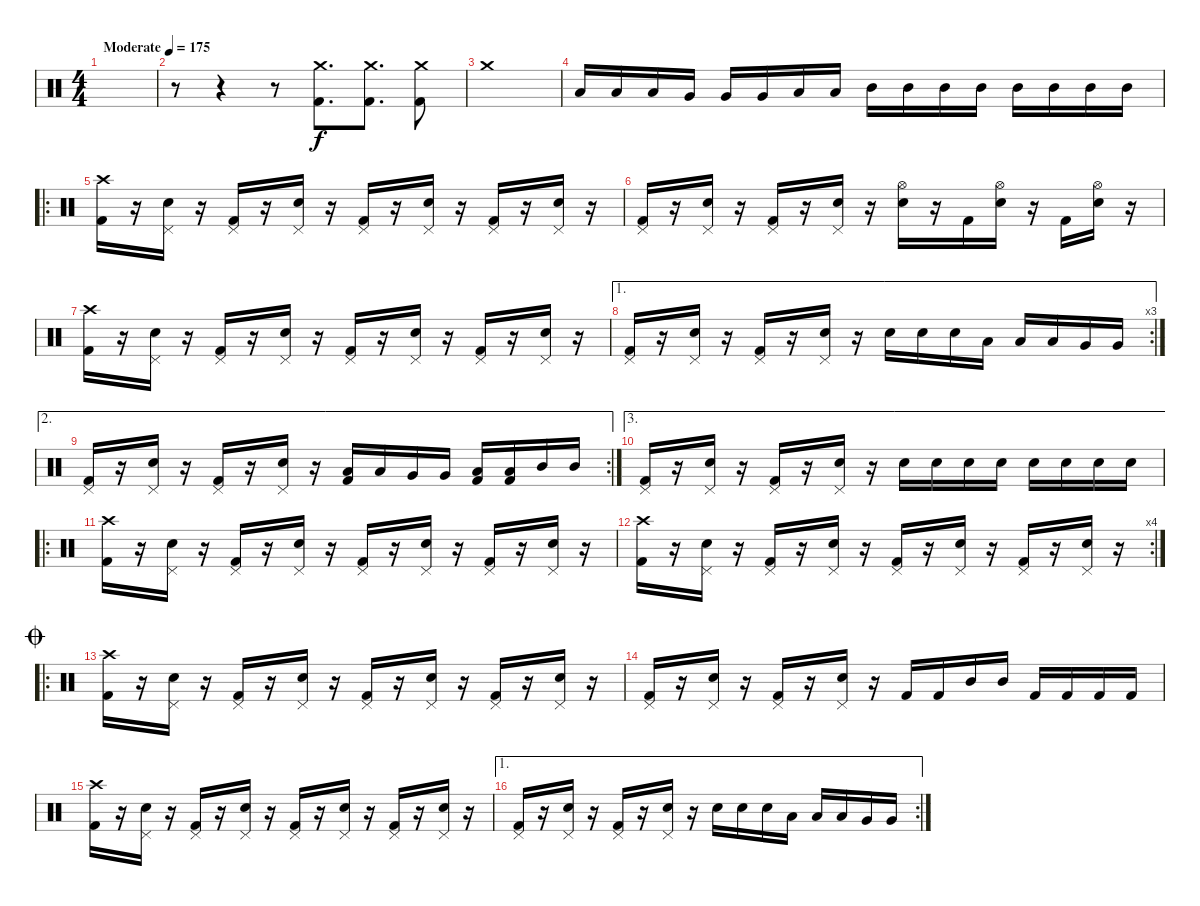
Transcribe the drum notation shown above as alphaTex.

\track "" {solo instrument percussion}
\staff {score}
\articulation defaults
\ts (4 4)
\tempo (175 "Moderate")
\clef neutral
\ks c
|
r.8 r.4 r.8 ("Crash medium (hit)" "Kick (hit) 2").8{d} ("Crash medium (hit)" "Kick (hit) 2").8{d} ("Crash medium (hit)" "Kick (hit) 2").8 |
"Crash medium (hit)".1 |
"Low Floor Tom (hit)".16 "Low Floor Tom (hit)".16 "Low Floor Tom (hit)".16 "Very Low Tom (hit)".16 "Very Low Tom (hit)".16 "Very Low Tom (hit)".16 "Low Tom (hit)".16 "Low Tom (hit)".16 "Mid Tom (hit)".16 "Mid Tom (hit)".16 "Mid Tom (hit)".16 "Mid Tom (hit)".16 "Mid Tom (hit)".16 "Mid Tom (hit)".16 "Mid Tom (hit)".16 "Mid Tom (hit)".16 |
\ro
("Kick (hit) 2" "Crash high (hit)").16 r.16 ("Electric Snare (hit)" "Pedal Hi-Hat (hit)").16 r.16 ("Kick (hit) 2" "Pedal Hi-Hat (hit)").16 r.16 ("Electric Snare (hit)" "Pedal Hi-Hat (hit)").16 r.16 ("Kick (hit) 2" "Pedal Hi-Hat (hit)").16 r.16 ("Electric Snare (hit)" "Pedal Hi-Hat (hit)").16 r.16 ("Kick (hit) 2" "Pedal Hi-Hat (hit)").16 r.16 ("Electric Snare (hit)" "Pedal Hi-Hat (hit)").16 r.16 |
("Kick (hit) 2" "Pedal Hi-Hat (hit)").16 r.16 ("Electric Snare (hit)" "Pedal Hi-Hat (hit)").16 r.16 ("Kick (hit) 2" "Pedal Hi-Hat (hit)").16 r.16 ("Electric Snare (hit)" "Pedal Hi-Hat (hit)").16 r.16 ("Electric Snare (hit)" "Hi-Hat (open)").16 r.16 "Kick (hit) 2".16 ("Electric Snare (hit)" "Hi-Hat (open)").16 r.16 "Kick (hit) 2".16 ("Electric Snare (hit)" "Hi-Hat (open)").16 r.16 |
("Kick (hit) 2" "Crash high (hit)").16 r.16 ("Electric Snare (hit)" "Pedal Hi-Hat (hit)").16 r.16 ("Kick (hit) 2" "Pedal Hi-Hat (hit)").16 r.16 ("Electric Snare (hit)" "Pedal Hi-Hat (hit)").16 r.16 ("Kick (hit) 2" "Pedal Hi-Hat (hit)").16 r.16 ("Electric Snare (hit)" "Pedal Hi-Hat (hit)").16 r.16 ("Kick (hit) 2" "Pedal Hi-Hat (hit)").16 r.16 ("Electric Snare (hit)" "Pedal Hi-Hat (hit)").16 r.16 |
\ae 1
\rc 3
("Kick (hit) 2" "Pedal Hi-Hat (hit)").16 r.16 ("Electric Snare (hit)" "Pedal Hi-Hat (hit)").16 r.16 ("Kick (hit) 2" "Pedal Hi-Hat (hit)").16 r.16 ("Electric Snare (hit)" "Pedal Hi-Hat (hit)").16 r.16 "Electric Snare (hit)".16 "Electric Snare (hit)".16 "Electric Snare (hit)".16 "Low Floor Tom (hit)".16 "Low Floor Tom (hit)".16 "Low Floor Tom (hit)".16 "Very Low Tom (hit)".16 "Very Low Tom (hit)".16 |
\ae 2
\rc 2
("Kick (hit) 2" "Pedal Hi-Hat (hit)").16 r.16 ("Electric Snare (hit)" "Pedal Hi-Hat (hit)").16 r.16 ("Kick (hit) 2" "Pedal Hi-Hat (hit)").16 r.16 ("Electric Snare (hit)" "Pedal Hi-Hat (hit)").16 r.16 ("Low Floor Tom (hit)" "Kick (hit) 2").16 "Low Floor Tom (hit)".16 "Very Low Tom (hit)".16 "Very Low Tom (hit)".16 ("Low Tom (hit)" "Kick (hit) 2").16 ("Low Tom (hit)" "Kick (hit) 2").16 "Mid Tom (hit)".16 "Mid Tom (hit)".16 |
\ae 3
("Kick (hit) 2" "Pedal Hi-Hat (hit)").16 r.16 ("Electric Snare (hit)" "Pedal Hi-Hat (hit)").16 r.16 ("Kick (hit) 2" "Pedal Hi-Hat (hit)").16 r.16 ("Electric Snare (hit)" "Pedal Hi-Hat (hit)").16 r.16 "Electric Snare (hit)".16 "Electric Snare (hit)".16 "Electric Snare (hit)".16 "Electric Snare (hit)".16 "Electric Snare (hit)".16 "Electric Snare (hit)".16 "Electric Snare (hit)".16 "Electric Snare (hit)".16 |
\ro
("Kick (hit) 2" "Crash high (hit)").16 r.16 ("Electric Snare (hit)" "Pedal Hi-Hat (hit)").16 r.16 ("Kick (hit) 2" "Pedal Hi-Hat (hit)").16 r.16 ("Electric Snare (hit)" "Pedal Hi-Hat (hit)").16 r.16 ("Kick (hit) 2" "Pedal Hi-Hat (hit)").16 r.16 ("Electric Snare (hit)" "Pedal Hi-Hat (hit)").16 r.16 ("Kick (hit) 2" "Pedal Hi-Hat (hit)").16 r.16 ("Electric Snare (hit)" "Pedal Hi-Hat (hit)").16 r.16 |
\rc 4
("Kick (hit) 2" "Crash high (hit)").16 r.16 ("Electric Snare (hit)" "Pedal Hi-Hat (hit)").16 r.16 ("Kick (hit) 2" "Pedal Hi-Hat (hit)").16 r.16 ("Electric Snare (hit)" "Pedal Hi-Hat (hit)").16 r.16 ("Kick (hit) 2" "Pedal Hi-Hat (hit)").16 r.16 ("Electric Snare (hit)" "Pedal Hi-Hat (hit)").16 r.16 ("Kick (hit) 2" "Pedal Hi-Hat (hit)").16 r.16 ("Electric Snare (hit)" "Pedal Hi-Hat (hit)").16 r.16 |
\ro
\jump coda
("Kick (hit) 2" "Crash high (hit)").16 r.16 ("Electric Snare (hit)" "Pedal Hi-Hat (hit)").16 r.16 ("Kick (hit) 2" "Pedal Hi-Hat (hit)").16 r.16 ("Electric Snare (hit)" "Pedal Hi-Hat (hit)").16 r.16 ("Kick (hit) 2" "Pedal Hi-Hat (hit)").16 r.16 ("Electric Snare (hit)" "Pedal Hi-Hat (hit)").16 r.16 ("Kick (hit) 2" "Pedal Hi-Hat (hit)").16 r.16 ("Electric Snare (hit)" "Pedal Hi-Hat (hit)").16 r.16 |
("Kick (hit) 2" "Pedal Hi-Hat (hit)").16 r.16 ("Electric Snare (hit)" "Pedal Hi-Hat (hit)").16 r.16 ("Kick (hit) 2" "Pedal Hi-Hat (hit)").16 r.16 ("Electric Snare (hit)" "Pedal Hi-Hat (hit)").16 r.16 "Kick (hit) 2".16 "Kick (hit) 2".16 "Mid Tom (hit)".16 "Mid Tom (hit)".16 "Kick (hit) 2".16 "Kick (hit) 2".16 "Kick (hit) 2".16 "Kick (hit) 2".16 |
("Kick (hit) 2" "Crash high (hit)").16 r.16 ("Electric Snare (hit)" "Pedal Hi-Hat (hit)").16 r.16 ("Kick (hit) 2" "Pedal Hi-Hat (hit)").16 r.16 ("Electric Snare (hit)" "Pedal Hi-Hat (hit)").16 r.16 ("Kick (hit) 2" "Pedal Hi-Hat (hit)").16 r.16 ("Electric Snare (hit)" "Pedal Hi-Hat (hit)").16 r.16 ("Kick (hit) 2" "Pedal Hi-Hat (hit)").16 r.16 ("Electric Snare (hit)" "Pedal Hi-Hat (hit)").16 r.16 |
\ae 1
\rc 2
("Kick (hit) 2" "Pedal Hi-Hat (hit)").16 r.16 ("Electric Snare (hit)" "Pedal Hi-Hat (hit)").16 r.16 ("Kick (hit) 2" "Pedal Hi-Hat (hit)").16 r.16 ("Electric Snare (hit)" "Pedal Hi-Hat (hit)").16 r.16 "Electric Snare (hit)".16 "Electric Snare (hit)".16 "Electric Snare (hit)".16 "Low Floor Tom (hit)".16 "Low Floor Tom (hit)".16 "Low Floor Tom (hit)".16 "Very Low Tom (hit)".16 "Very Low Tom (hit)".16
